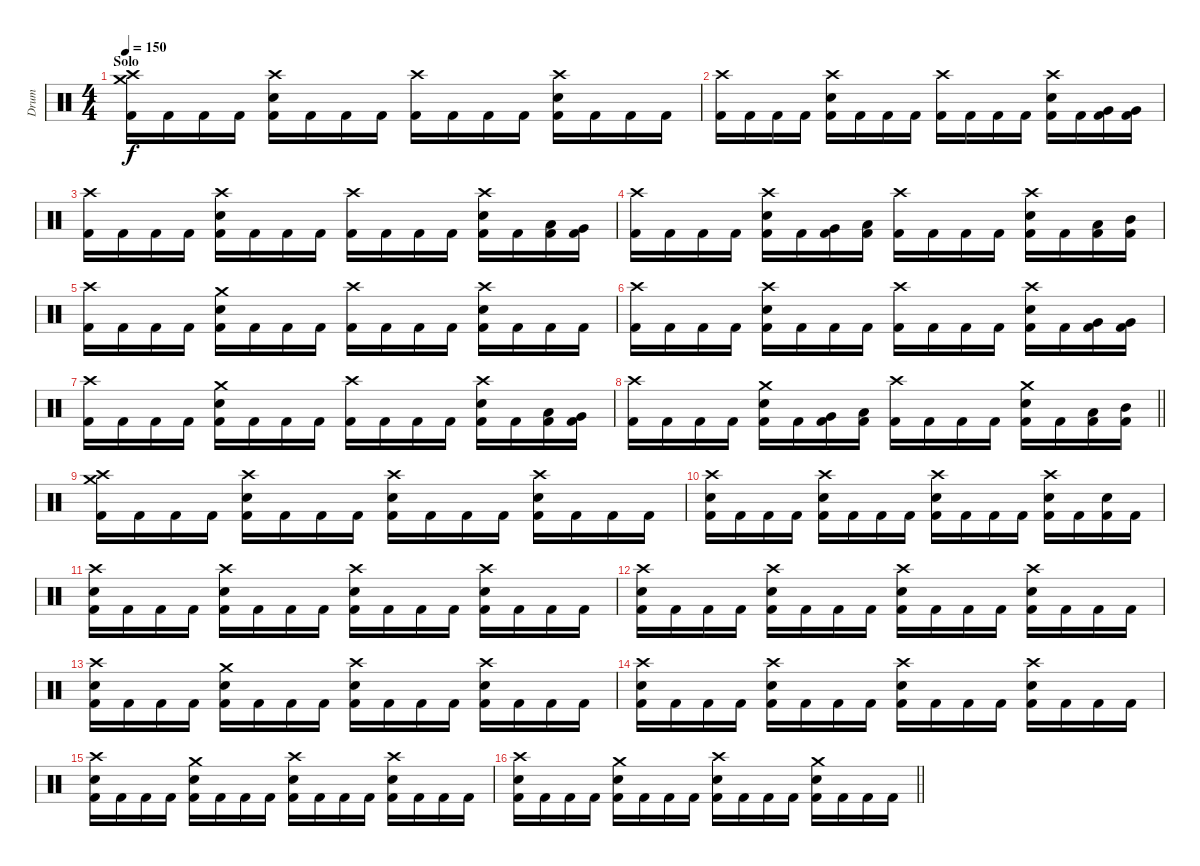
\track ("Drum" "Drum") {instrument percussion}
\staff {score}
\articulation defaults
\ts (4 4)
\section ("" "Solo")
\tempo 150
\clef neutral
\ks c
("Crash high (hit)" "Crash medium (hit)" "Kick (hit) 2").16{dy f} "Kick (hit) 2".16 "Kick (hit) 2".16 "Kick (hit) 2".16 ("Snare (hit) 2" "Crash high (hit)" "Kick (hit) 2").16 "Kick (hit) 2".16 "Kick (hit) 2".16 "Kick (hit) 2".16 ("Crash high (hit)" "Kick (hit) 2").16 "Kick (hit) 2".16 "Kick (hit) 2".16 "Kick (hit) 2".16 ("Snare (hit) 2" "Crash high (hit)" "Kick (hit) 2").16 "Kick (hit) 2".16 "Kick (hit) 2".16 "Kick (hit) 2".16 |
("Crash high (hit)" "Kick (hit) 2").16 "Kick (hit) 2".16 "Kick (hit) 2".16 "Kick (hit) 2".16 ("Snare (hit) 2" "Crash high (hit)" "Kick (hit) 2").16 "Kick (hit) 2".16 "Kick (hit) 2".16 "Kick (hit) 2".16 ("Crash high (hit)" "Kick (hit) 2").16 "Kick (hit) 2".16 "Kick (hit) 2".16 "Kick (hit) 2".16 ("Snare (hit) 2" "Crash high (hit)" "Kick (hit) 2").16 "Kick (hit) 2".16 ("Very Low Tom (hit)" "Kick (hit) 2").16 ("Very Low Tom (hit)" "Kick (hit) 2").16 |
("Crash high (hit)" "Kick (hit) 2").16 "Kick (hit) 2".16 "Kick (hit) 2".16 "Kick (hit) 2".16 ("Snare (hit) 2" "Crash high (hit)" "Kick (hit) 2").16 "Kick (hit) 2".16 "Kick (hit) 2".16 "Kick (hit) 2".16 ("Crash high (hit)" "Kick (hit) 2").16 "Kick (hit) 2".16 "Kick (hit) 2".16 "Kick (hit) 2".16 ("Snare (hit) 2" "Crash high (hit)" "Kick (hit) 2").16 "Kick (hit) 2".16 ("Low Floor Tom (hit)" "Kick (hit) 2").16 ("Very Low Tom (hit)" "Kick (hit) 2").16 |
("Crash high (hit)" "Kick (hit) 2").16 "Kick (hit) 2".16 "Kick (hit) 2".16 "Kick (hit) 2".16 ("Snare (hit) 2" "Crash high (hit)" "Kick (hit) 2").16 "Kick (hit) 2".16 ("Very Low Tom (hit)" "Kick (hit) 2").16 ("Low Tom (hit)" "Kick (hit) 2").16 ("Crash high (hit)" "Kick (hit) 2").16 "Kick (hit) 2".16 "Kick (hit) 2".16 "Kick (hit) 2".16 ("Snare (hit) 2" "Crash high (hit)" "Kick (hit) 2").16 "Kick (hit) 2".16 ("Low Tom (hit)" "Kick (hit) 2").16 ("Mid Tom (hit)" "Kick (hit) 2").16 |
("Crash high (hit)" "Kick (hit) 2").16 "Kick (hit) 2".16 "Kick (hit) 2".16 "Kick (hit) 2".16 ("Snare (hit) 2" "Crash medium (hit)" "Kick (hit) 2").16 "Kick (hit) 2".16 "Kick (hit) 2".16 "Kick (hit) 2".16 ("Crash high (hit)" "Kick (hit) 2").16 "Kick (hit) 2".16 "Kick (hit) 2".16 "Kick (hit) 2".16 ("Snare (hit) 2" "Crash high (hit)" "Kick (hit) 2").16 "Kick (hit) 2".16 "Kick (hit) 2".16 "Kick (hit) 2".16 |
("Crash high (hit)" "Kick (hit) 2").16 "Kick (hit) 2".16 "Kick (hit) 2".16 "Kick (hit) 2".16 ("Snare (hit) 2" "Crash high (hit)" "Kick (hit) 2").16 "Kick (hit) 2".16 "Kick (hit) 2".16 "Kick (hit) 2".16 ("Crash high (hit)" "Kick (hit) 2").16 "Kick (hit) 2".16 "Kick (hit) 2".16 "Kick (hit) 2".16 ("Snare (hit) 2" "Crash high (hit)" "Kick (hit) 2").16 "Kick (hit) 2".16 ("Very Low Tom (hit)" "Kick (hit) 2").16 ("Very Low Tom (hit)" "Kick (hit) 2").16 |
("Crash high (hit)" "Kick (hit) 2").16 "Kick (hit) 2".16 "Kick (hit) 2".16 "Kick (hit) 2".16 ("Snare (hit) 2" "Crash medium (hit)" "Kick (hit) 2").16 "Kick (hit) 2".16 "Kick (hit) 2".16 "Kick (hit) 2".16 ("Crash high (hit)" "Kick (hit) 2").16 "Kick (hit) 2".16 "Kick (hit) 2".16 "Kick (hit) 2".16 ("Snare (hit) 2" "Crash high (hit)" "Kick (hit) 2").16 "Kick (hit) 2".16 ("Low Floor Tom (hit)" "Kick (hit) 2").16 ("Very Low Tom (hit)" "Kick (hit) 2").16 |
\barLineRight lightlight
("Crash high (hit)" "Kick (hit) 2").16 "Kick (hit) 2".16 "Kick (hit) 2".16 "Kick (hit) 2".16 ("Snare (hit) 2" "Crash medium (hit)" "Kick (hit) 2").16 "Kick (hit) 2".16 ("Very Low Tom (hit)" "Kick (hit) 2").16 ("Low Tom (hit)" "Kick (hit) 2").16 ("Crash high (hit)" "Kick (hit) 2").16 "Kick (hit) 2".16 "Kick (hit) 2".16 "Kick (hit) 2".16 ("Snare (hit) 2" "Crash medium (hit)" "Kick (hit) 2").16 "Kick (hit) 2".16 ("Low Tom (hit)" "Kick (hit) 2").16 ("Mid Tom (hit)" "Kick (hit) 2").16 |
("Crash high (hit)" "Crash medium (hit)" "Kick (hit) 2").16 "Kick (hit) 2".16 "Kick (hit) 2".16 "Kick (hit) 2".16 ("Snare (hit) 2" "Crash high (hit)" "Kick (hit) 2").16 "Kick (hit) 2".16 "Kick (hit) 2".16 "Kick (hit) 2".16 ("Snare (hit) 2" "Crash high (hit)" "Kick (hit) 2").16 "Kick (hit) 2".16 "Kick (hit) 2".16 "Kick (hit) 2".16 ("Snare (hit) 2" "Crash high (hit)" "Kick (hit) 2").16 "Kick (hit) 2".16 "Kick (hit) 2".16 "Kick (hit) 2".16 |
("Snare (hit) 2" "Crash high (hit)" "Kick (hit) 2").16 "Kick (hit) 2".16 "Kick (hit) 2".16 "Kick (hit) 2".16 ("Snare (hit) 2" "Crash high (hit)" "Kick (hit) 2").16 "Kick (hit) 2".16 "Kick (hit) 2".16 "Kick (hit) 2".16 ("Snare (hit) 2" "Crash high (hit)" "Kick (hit) 2").16 "Kick (hit) 2".16 "Kick (hit) 2".16 "Kick (hit) 2".16 ("Snare (hit) 2" "Crash high (hit)" "Kick (hit) 2").16 "Kick (hit) 2".16 ("Snare (hit) 2" "Kick (hit) 2").16 "Kick (hit) 2".16 |
("Snare (hit) 2" "Crash high (hit)" "Kick (hit) 2").16 "Kick (hit) 2".16 "Kick (hit) 2".16 "Kick (hit) 2".16 ("Snare (hit) 2" "Crash high (hit)" "Kick (hit) 2").16 "Kick (hit) 2".16 "Kick (hit) 2".16 "Kick (hit) 2".16 ("Snare (hit) 2" "Crash high (hit)" "Kick (hit) 2").16 "Kick (hit) 2".16 "Kick (hit) 2".16 "Kick (hit) 2".16 ("Snare (hit) 2" "Crash high (hit)" "Kick (hit) 2").16 "Kick (hit) 2".16 "Kick (hit) 2".16 "Kick (hit) 2".16 |
("Snare (hit) 2" "Crash high (hit)" "Kick (hit) 2").16 "Kick (hit) 2".16 "Kick (hit) 2".16 "Kick (hit) 2".16 ("Snare (hit) 2" "Crash high (hit)" "Kick (hit) 2").16 "Kick (hit) 2".16 "Kick (hit) 2".16 "Kick (hit) 2".16 ("Snare (hit) 2" "Crash high (hit)" "Kick (hit) 2").16 "Kick (hit) 2".16 "Kick (hit) 2".16 "Kick (hit) 2".16 ("Snare (hit) 2" "Crash high (hit)" "Kick (hit) 2").16 "Kick (hit) 2".16 "Kick (hit) 2".16 "Kick (hit) 2".16 |
("Snare (hit) 2" "Crash high (hit)" "Kick (hit) 2").16 "Kick (hit) 2".16 "Kick (hit) 2".16 "Kick (hit) 2".16 ("Snare (hit) 2" "Crash medium (hit)" "Kick (hit) 2").16 "Kick (hit) 2".16 "Kick (hit) 2".16 "Kick (hit) 2".16 ("Snare (hit) 2" "Crash high (hit)" "Kick (hit) 2").16 "Kick (hit) 2".16 "Kick (hit) 2".16 "Kick (hit) 2".16 ("Snare (hit) 2" "Crash high (hit)" "Kick (hit) 2").16 "Kick (hit) 2".16 "Kick (hit) 2".16 "Kick (hit) 2".16 |
("Snare (hit) 2" "Crash high (hit)" "Kick (hit) 2").16 "Kick (hit) 2".16 "Kick (hit) 2".16 "Kick (hit) 2".16 ("Snare (hit) 2" "Crash high (hit)" "Kick (hit) 2").16 "Kick (hit) 2".16 "Kick (hit) 2".16 "Kick (hit) 2".16 ("Snare (hit) 2" "Crash high (hit)" "Kick (hit) 2").16 "Kick (hit) 2".16 "Kick (hit) 2".16 "Kick (hit) 2".16 ("Snare (hit) 2" "Crash high (hit)" "Kick (hit) 2").16 "Kick (hit) 2".16 "Kick (hit) 2".16 "Kick (hit) 2".16 |
("Crash high (hit)" "Snare (hit) 2" "Kick (hit) 2").16 "Kick (hit) 2".16 "Kick (hit) 2".16 "Kick (hit) 2".16 ("Snare (hit) 2" "Crash medium (hit)" "Kick (hit) 2").16 "Kick (hit) 2".16 "Kick (hit) 2".16 "Kick (hit) 2".16 ("Snare (hit) 2" "Crash high (hit)" "Kick (hit) 2").16 "Kick (hit) 2".16 "Kick (hit) 2".16 "Kick (hit) 2".16 ("Snare (hit) 2" "Crash high (hit)" "Kick (hit) 2").16 "Kick (hit) 2".16 "Kick (hit) 2".16 "Kick (hit) 2".16 |
\barLineRight lightlight
("Snare (hit) 2" "Crash high (hit)" "Kick (hit) 2").16 "Kick (hit) 2".16 "Kick (hit) 2".16 "Kick (hit) 2".16 ("Snare (hit) 2" "Crash medium (hit)" "Kick (hit) 2").16 "Kick (hit) 2".16 "Kick (hit) 2".16 "Kick (hit) 2".16 ("Snare (hit) 2" "Crash high (hit)" "Kick (hit) 2").16 "Kick (hit) 2".16 "Kick (hit) 2".16 "Kick (hit) 2".16 ("Snare (hit) 2" "Crash medium (hit)" "Kick (hit) 2").16 "Kick (hit) 2".16 "Kick (hit) 2".16 "Kick (hit) 2".16
